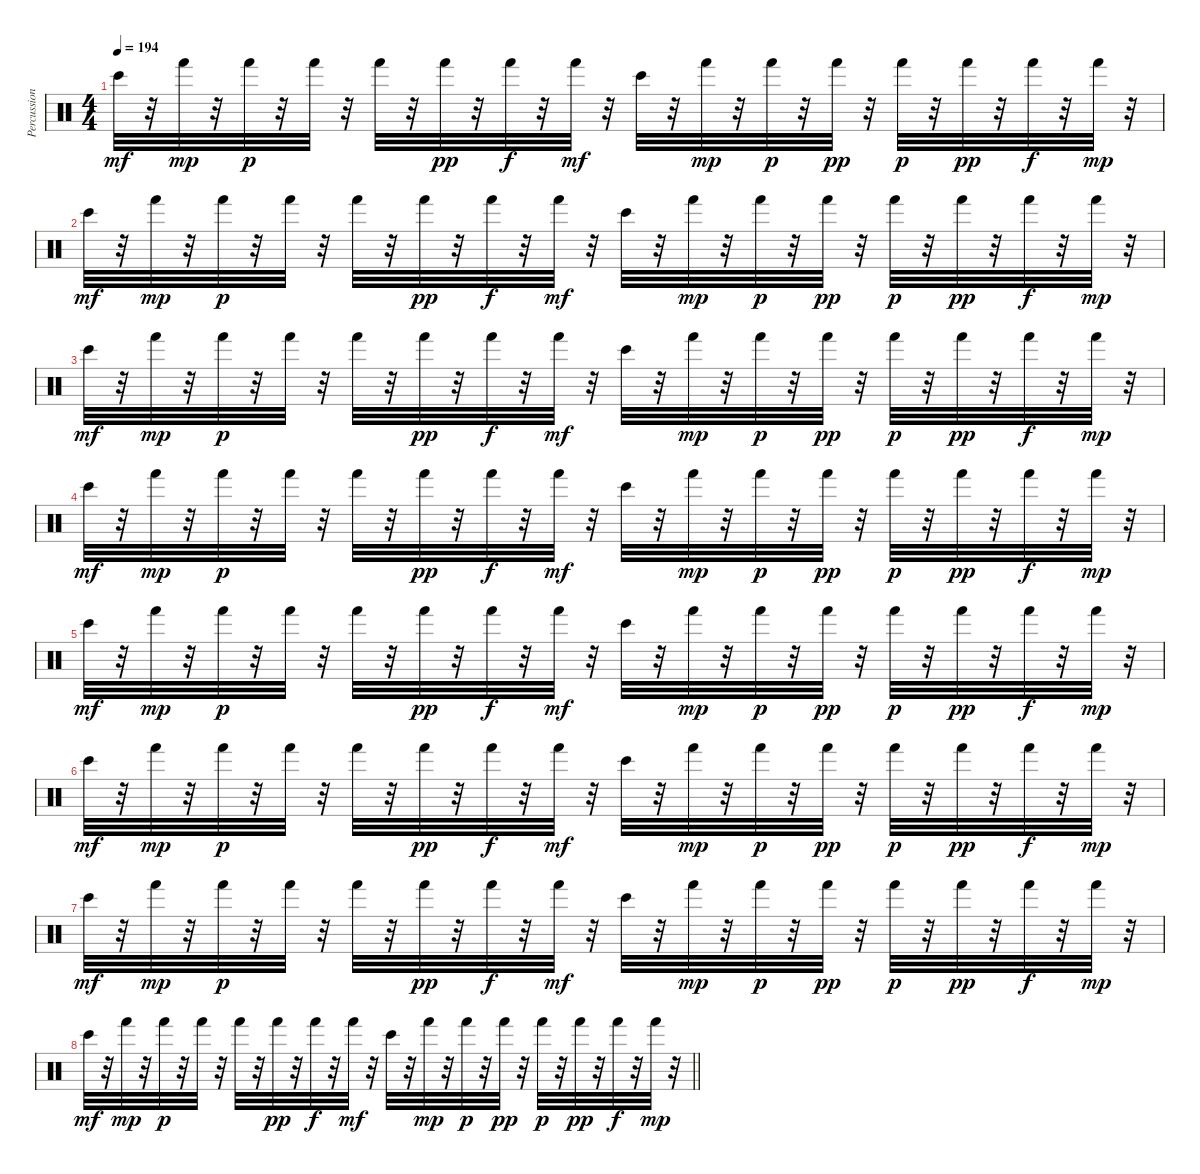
\track ("Percussions" "Percussion") {instrument percussion}
\staff {score}
\articulation defaults
\ts (4 4)
\tempo 194
\clef neutral
\ks c "Bongo High (hit)".32{dy mf}
r.32 "Hand (hit)".32{dy mp} r.32 "Hand (hit)".32{dy p} r.32 "Hand (hit)".32 r.32 "Hand (hit)".32 r.32 "Hand (hit)".32{dy pp} r.32 "Hand (hit)".32{dy f} r.32 "Hand (hit)".32{dy mf} r.32 "Bongo High (hit)".32 r.32 "Hand (hit)".32{dy mp} r.32 "Hand (hit)".32{dy p} r.32 "Hand (hit)".32{dy pp} r.32 "Hand (hit)".32{dy p} r.32 "Hand (hit)".32{dy pp} r.32 "Hand (hit)".32{dy f} r.32 "Hand (hit)".32{dy mp} r.32 |
"Bongo High (hit)".32{dy mf} r.32 "Hand (hit)".32{dy mp} r.32 "Hand (hit)".32{dy p} r.32 "Hand (hit)".32 r.32 "Hand (hit)".32 r.32 "Hand (hit)".32{dy pp} r.32 "Hand (hit)".32{dy f} r.32 "Hand (hit)".32{dy mf} r.32 "Bongo High (hit)".32 r.32 "Hand (hit)".32{dy mp} r.32 "Hand (hit)".32{dy p} r.32 "Hand (hit)".32{dy pp} r.32 "Hand (hit)".32{dy p} r.32 "Hand (hit)".32{dy pp} r.32 "Hand (hit)".32{dy f} r.32 "Hand (hit)".32{dy mp} r.32 |
"Bongo High (hit)".32{dy mf} r.32 "Hand (hit)".32{dy mp} r.32 "Hand (hit)".32{dy p} r.32 "Hand (hit)".32 r.32 "Hand (hit)".32 r.32 "Hand (hit)".32{dy pp} r.32 "Hand (hit)".32{dy f} r.32 "Hand (hit)".32{dy mf} r.32 "Bongo High (hit)".32 r.32 "Hand (hit)".32{dy mp} r.32 "Hand (hit)".32{dy p} r.32 "Hand (hit)".32{dy pp} r.32 "Hand (hit)".32{dy p} r.32 "Hand (hit)".32{dy pp} r.32 "Hand (hit)".32{dy f} r.32 "Hand (hit)".32{dy mp} r.32 |
"Bongo High (hit)".32{dy mf} r.32 "Hand (hit)".32{dy mp} r.32 "Hand (hit)".32{dy p} r.32 "Hand (hit)".32 r.32 "Hand (hit)".32 r.32 "Hand (hit)".32{dy pp} r.32 "Hand (hit)".32{dy f} r.32 "Hand (hit)".32{dy mf} r.32 "Bongo High (hit)".32 r.32 "Hand (hit)".32{dy mp} r.32 "Hand (hit)".32{dy p} r.32 "Hand (hit)".32{dy pp} r.32 "Hand (hit)".32{dy p} r.32 "Hand (hit)".32{dy pp} r.32 "Hand (hit)".32{dy f} r.32 "Hand (hit)".32{dy mp} r.32 |
"Bongo High (hit)".32{dy mf} r.32 "Hand (hit)".32{dy mp} r.32 "Hand (hit)".32{dy p} r.32 "Hand (hit)".32 r.32 "Hand (hit)".32 r.32 "Hand (hit)".32{dy pp} r.32 "Hand (hit)".32{dy f} r.32 "Hand (hit)".32{dy mf} r.32 "Bongo High (hit)".32 r.32 "Hand (hit)".32{dy mp} r.32 "Hand (hit)".32{dy p} r.32 "Hand (hit)".32{dy pp} r.32 "Hand (hit)".32{dy p} r.32 "Hand (hit)".32{dy pp} r.32 "Hand (hit)".32{dy f} r.32 "Hand (hit)".32{dy mp} r.32 |
"Bongo High (hit)".32{dy mf} r.32 "Hand (hit)".32{dy mp} r.32 "Hand (hit)".32{dy p} r.32 "Hand (hit)".32 r.32 "Hand (hit)".32 r.32 "Hand (hit)".32{dy pp} r.32 "Hand (hit)".32{dy f} r.32 "Hand (hit)".32{dy mf} r.32 "Bongo High (hit)".32 r.32 "Hand (hit)".32{dy mp} r.32 "Hand (hit)".32{dy p} r.32 "Hand (hit)".32{dy pp} r.32 "Hand (hit)".32{dy p} r.32 "Hand (hit)".32{dy pp} r.32 "Hand (hit)".32{dy f} r.32 "Hand (hit)".32{dy mp} r.32 |
"Bongo High (hit)".32{dy mf} r.32 "Hand (hit)".32{dy mp} r.32 "Hand (hit)".32{dy p} r.32 "Hand (hit)".32 r.32 "Hand (hit)".32 r.32 "Hand (hit)".32{dy pp} r.32 "Hand (hit)".32{dy f} r.32 "Hand (hit)".32{dy mf} r.32 "Bongo High (hit)".32 r.32 "Hand (hit)".32{dy mp} r.32 "Hand (hit)".32{dy p} r.32 "Hand (hit)".32{dy pp} r.32 "Hand (hit)".32{dy p} r.32 "Hand (hit)".32{dy pp} r.32 "Hand (hit)".32{dy f} r.32 "Hand (hit)".32{dy mp} r.32 |
\barLineRight lightlight "Bongo High (hit)".32{dy mf}
r.32 "Hand (hit)".32{dy mp} r.32 "Hand (hit)".32{dy p} r.32 "Hand (hit)".32 r.32 "Hand (hit)".32 r.32 "Hand (hit)".32{dy pp} r.32 "Hand (hit)".32{dy f} r.32 "Hand (hit)".32{dy mf} r.32 "Bongo High (hit)".32 r.32 "Hand (hit)".32{dy mp} r.32 "Hand (hit)".32{dy p} r.32 "Hand (hit)".32{dy pp} r.32 "Hand (hit)".32{dy p} r.32 "Hand (hit)".32{dy pp} r.32 "Hand (hit)".32{dy f} r.32 "Hand (hit)".32{dy mp} r.32
